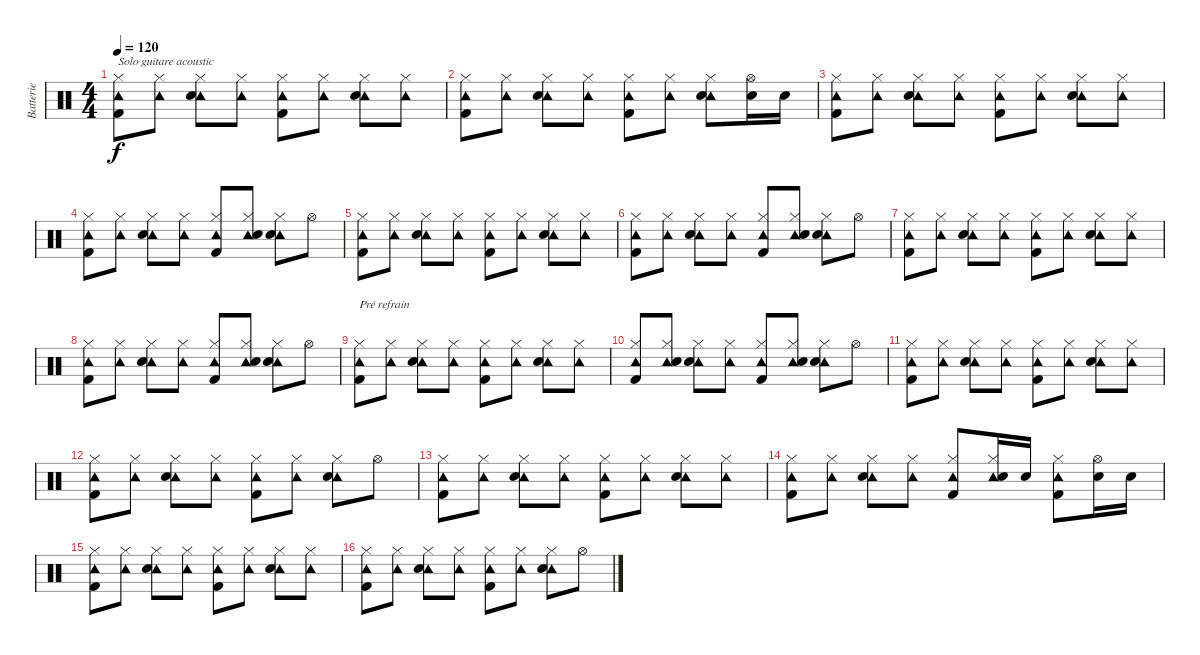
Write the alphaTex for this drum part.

\track ("Batterie" "Batterie") {instrument percussion}
\staff {score}
\articulation defaults
\ts (4 4)
\tempo 120
\clef neutral
\ks c
("Tambourine (hit)" "Hi-Hat (closed)" "Kick (hit) 2").8{txt "Solo guitare acoustic" dy f} ("Tambourine (hit)" "Hi-Hat (closed)").8 ("Tambourine (hit)" "Hi-Hat (closed)" "Electric Snare (hit)").8 ("Tambourine (hit)" "Hi-Hat (closed)").8 ("Tambourine (hit)" "Hi-Hat (closed)" "Kick (hit) 2").8 ("Tambourine (hit)" "Hi-Hat (closed)").8 ("Tambourine (hit)" "Hi-Hat (closed)" "Electric Snare (hit)").8 ("Tambourine (hit)" "Hi-Hat (closed)").8 |
("Tambourine (hit)" "Hi-Hat (closed)" "Kick (hit) 2").8 ("Tambourine (hit)" "Hi-Hat (closed)").8 ("Tambourine (hit)" "Hi-Hat (closed)" "Electric Snare (hit)").8 ("Tambourine (hit)" "Hi-Hat (closed)").8 ("Tambourine (hit)" "Hi-Hat (closed)" "Kick (hit) 2").8 ("Tambourine (hit)" "Hi-Hat (closed)").8 ("Tambourine (hit)" "Hi-Hat (closed)" "Electric Snare (hit)").8 ("Hi-Hat (open)" "Electric Snare (hit)").16 "Electric Snare (hit)".16 |
("Tambourine (hit)" "Hi-Hat (closed)" "Kick (hit) 2").8 ("Tambourine (hit)" "Hi-Hat (closed)").8 ("Tambourine (hit)" "Hi-Hat (closed)" "Electric Snare (hit)").8 ("Tambourine (hit)" "Hi-Hat (closed)").8 ("Tambourine (hit)" "Hi-Hat (closed)" "Kick (hit) 2").8 ("Tambourine (hit)" "Hi-Hat (closed)").8 ("Tambourine (hit)" "Hi-Hat (closed)" "Electric Snare (hit)").8 ("Tambourine (hit)" "Hi-Hat (closed)").8 |
("Tambourine (hit)" "Hi-Hat (closed)" "Kick (hit) 2").8 ("Tambourine (hit)" "Hi-Hat (closed)").8 ("Tambourine (hit)" "Hi-Hat (closed)" "Electric Snare (hit)").8 ("Tambourine (hit)" "Hi-Hat (closed)").8 ("Tambourine (hit)" "Hi-Hat (closed)" "Kick (hit) 2").8 ("Tambourine (hit)" "Hi-Hat (closed)" "Electric Snare (hit)").8 ("Tambourine (hit)" "Hi-Hat (closed)" "Electric Snare (hit)").8 "Hi-Hat (open)".8 |
("Tambourine (hit)" "Hi-Hat (closed)" "Kick (hit) 2").8 ("Tambourine (hit)" "Hi-Hat (closed)").8 ("Tambourine (hit)" "Hi-Hat (closed)" "Electric Snare (hit)").8 ("Tambourine (hit)" "Hi-Hat (closed)").8 ("Tambourine (hit)" "Hi-Hat (closed)" "Kick (hit) 2").8 ("Tambourine (hit)" "Hi-Hat (closed)").8 ("Tambourine (hit)" "Hi-Hat (closed)" "Electric Snare (hit)").8 ("Tambourine (hit)" "Hi-Hat (closed)").8 |
("Tambourine (hit)" "Hi-Hat (closed)" "Kick (hit) 2").8 ("Tambourine (hit)" "Hi-Hat (closed)").8 ("Tambourine (hit)" "Hi-Hat (closed)" "Electric Snare (hit)").8 ("Tambourine (hit)" "Hi-Hat (closed)").8 ("Tambourine (hit)" "Hi-Hat (closed)" "Kick (hit) 2").8 ("Tambourine (hit)" "Hi-Hat (closed)" "Electric Snare (hit)").8 ("Tambourine (hit)" "Hi-Hat (closed)" "Electric Snare (hit)").8 "Hi-Hat (open)".8 |
("Tambourine (hit)" "Hi-Hat (closed)" "Kick (hit) 2").8 ("Tambourine (hit)" "Hi-Hat (closed)").8 ("Tambourine (hit)" "Hi-Hat (closed)" "Electric Snare (hit)").8 ("Tambourine (hit)" "Hi-Hat (closed)").8 ("Tambourine (hit)" "Hi-Hat (closed)" "Kick (hit) 2").8 ("Tambourine (hit)" "Hi-Hat (closed)").8 ("Tambourine (hit)" "Hi-Hat (closed)" "Electric Snare (hit)").8 ("Tambourine (hit)" "Hi-Hat (closed)").8 |
("Tambourine (hit)" "Hi-Hat (closed)" "Kick (hit) 2").8 ("Tambourine (hit)" "Hi-Hat (closed)").8 ("Tambourine (hit)" "Hi-Hat (closed)" "Electric Snare (hit)").8 ("Tambourine (hit)" "Hi-Hat (closed)").8 ("Tambourine (hit)" "Hi-Hat (closed)" "Kick (hit) 2").8 ("Tambourine (hit)" "Hi-Hat (closed)" "Electric Snare (hit)").8 ("Tambourine (hit)" "Hi-Hat (closed)" "Electric Snare (hit)").8 "Hi-Hat (open)".8 |
("Tambourine (hit)" "Hi-Hat (closed)" "Kick (hit) 2").8{txt "Pré refrain"} ("Tambourine (hit)" "Hi-Hat (closed)").8 ("Tambourine (hit)" "Hi-Hat (closed)" "Electric Snare (hit)").8 ("Tambourine (hit)" "Hi-Hat (closed)").8 ("Tambourine (hit)" "Hi-Hat (closed)" "Kick (hit) 2").8 ("Tambourine (hit)" "Hi-Hat (closed)").8 ("Tambourine (hit)" "Hi-Hat (closed)" "Electric Snare (hit)").8 ("Tambourine (hit)" "Hi-Hat (closed)").8 |
("Tambourine (hit)" "Hi-Hat (closed)" "Kick (hit) 2").8 ("Tambourine (hit)" "Hi-Hat (closed)" "Electric Snare (hit)").8 ("Tambourine (hit)" "Hi-Hat (closed)" "Electric Snare (hit)").8 ("Tambourine (hit)" "Hi-Hat (closed)").8 ("Tambourine (hit)" "Hi-Hat (closed)" "Kick (hit) 2").8 ("Tambourine (hit)" "Hi-Hat (closed)" "Electric Snare (hit)").8 ("Tambourine (hit)" "Hi-Hat (closed)" "Electric Snare (hit)").8 "Hi-Hat (open)".8 |
("Tambourine (hit)" "Hi-Hat (closed)" "Kick (hit) 2").8 ("Tambourine (hit)" "Hi-Hat (closed)").8 ("Tambourine (hit)" "Hi-Hat (closed)" "Electric Snare (hit)").8 ("Tambourine (hit)" "Hi-Hat (closed)").8 ("Tambourine (hit)" "Hi-Hat (closed)" "Kick (hit) 2").8 ("Tambourine (hit)" "Hi-Hat (closed)").8 ("Tambourine (hit)" "Hi-Hat (closed)" "Electric Snare (hit)").8 ("Tambourine (hit)" "Hi-Hat (closed)").8 |
("Tambourine (hit)" "Hi-Hat (closed)" "Kick (hit) 2").8 ("Tambourine (hit)" "Hi-Hat (closed)").8 ("Tambourine (hit)" "Hi-Hat (closed)" "Electric Snare (hit)").8 ("Tambourine (hit)" "Hi-Hat (closed)").8 ("Tambourine (hit)" "Hi-Hat (closed)" "Kick (hit) 2").8 ("Tambourine (hit)" "Hi-Hat (closed)").8 ("Tambourine (hit)" "Hi-Hat (closed)" "Electric Snare (hit)").8 "Hi-Hat (open)".8 |
("Tambourine (hit)" "Hi-Hat (closed)" "Kick (hit) 2").8 ("Tambourine (hit)" "Hi-Hat (closed)").8 ("Tambourine (hit)" "Hi-Hat (closed)" "Electric Snare (hit)").8 ("Tambourine (hit)" "Hi-Hat (closed)").8 ("Tambourine (hit)" "Hi-Hat (closed)" "Kick (hit) 2").8 ("Tambourine (hit)" "Hi-Hat (closed)").8 ("Tambourine (hit)" "Hi-Hat (closed)" "Electric Snare (hit)").8 ("Tambourine (hit)" "Hi-Hat (closed)").8 |
("Tambourine (hit)" "Hi-Hat (closed)" "Kick (hit) 2").8 ("Tambourine (hit)" "Hi-Hat (closed)").8 ("Tambourine (hit)" "Hi-Hat (closed)" "Electric Snare (hit)").8 ("Tambourine (hit)" "Hi-Hat (closed)").8 ("Tambourine (hit)" "Hi-Hat (closed)" "Kick (hit) 2").8 ("Tambourine (hit)" "Hi-Hat (closed)" "Electric Snare (hit)").16 "Electric Snare (hit)".16 ("Tambourine (hit)" "Hi-Hat (closed)" "Kick (hit) 2").8 ("Hi-Hat (open)" "Electric Snare (hit)").16 "Electric Snare (hit)".16 |
("Tambourine (hit)" "Hi-Hat (closed)" "Kick (hit) 2").8 ("Tambourine (hit)" "Hi-Hat (closed)").8 ("Tambourine (hit)" "Hi-Hat (closed)" "Electric Snare (hit)").8 ("Tambourine (hit)" "Hi-Hat (closed)").8 ("Tambourine (hit)" "Hi-Hat (closed)" "Kick (hit) 2").8 ("Tambourine (hit)" "Hi-Hat (closed)").8 ("Tambourine (hit)" "Hi-Hat (closed)" "Electric Snare (hit)").8 ("Tambourine (hit)" "Hi-Hat (closed)").8 |
("Tambourine (hit)" "Hi-Hat (closed)" "Kick (hit) 2").8 ("Tambourine (hit)" "Hi-Hat (closed)").8 ("Tambourine (hit)" "Hi-Hat (closed)" "Electric Snare (hit)").8 ("Tambourine (hit)" "Hi-Hat (closed)").8 ("Tambourine (hit)" "Hi-Hat (closed)" "Kick (hit) 2").8 ("Tambourine (hit)" "Hi-Hat (closed)").8 ("Tambourine (hit)" "Hi-Hat (closed)" "Electric Snare (hit)").8 "Hi-Hat (open)".8
